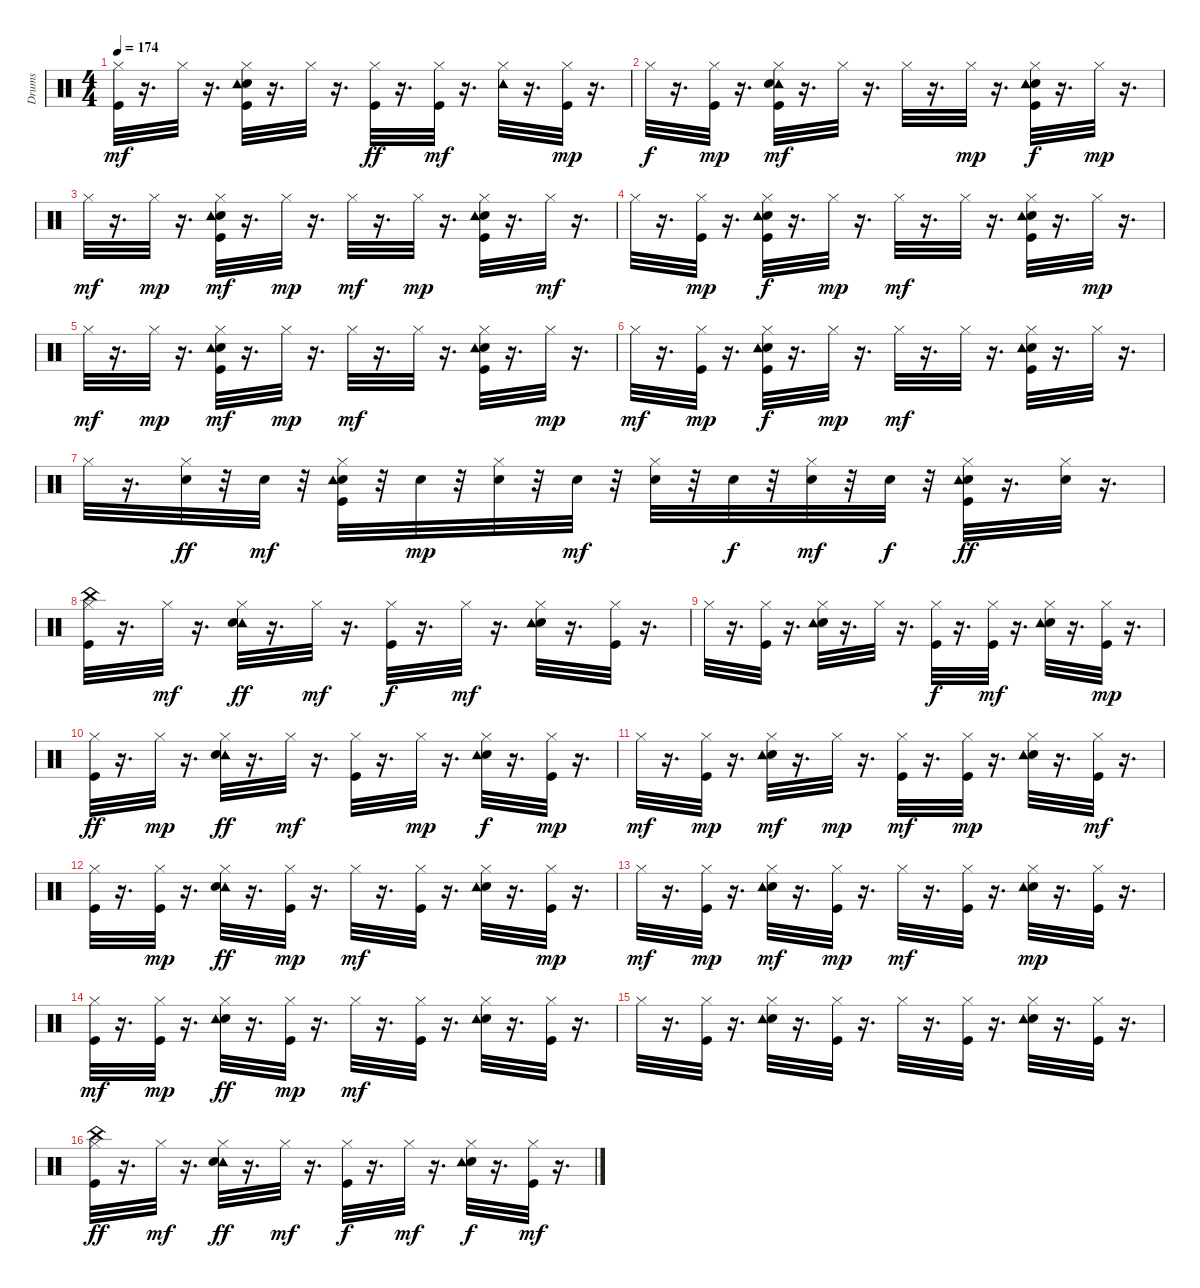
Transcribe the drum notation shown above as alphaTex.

\track ("Drums" "Drums") {instrument percussion}
\staff {score}
\articulation defaults
\ts (4 4)
\tempo 174
\clef neutral
\ks c
("Kick (hit)" "Hi-Hat (closed)").32{dy mf} r.16{d} "Hi-Hat (closed)".32 r.16{d} ("Kick (hit)" "Hi-Hat (closed)" "Electric Snare (hit)" "Tambourine (hit)").32 r.16{d} "Hi-Hat (closed)".32 r.16{d} ("Kick (hit)" "Hi-Hat (closed)").32{dy ff} r.16{d} ("Kick (hit)" "Hi-Hat (closed)").32{dy mf} r.16{d} ("Hi-Hat (closed)" "Tambourine (hit)").32 r.16{d} ("Kick (hit)" "Hi-Hat (closed)").32{dy mp} r.16{d} |
"Hi-Hat (closed)".32{dy f} r.16{d} ("Kick (hit)" "Hi-Hat (closed)").32{dy mp} r.16{d} ("Tambourine (hit)" "Kick (hit)" "Hi-Hat (closed)" "Electric Snare (hit)").32{dy mf} r.16{d} "Hi-Hat (closed)".32 r.16{d} "Hi-Hat (closed)".32 r.16{d} "Hi-Hat (closed)".32{dy mp} r.16{d} ("Kick (hit)" "Hi-Hat (closed)" "Electric Snare (hit)" "Tambourine (hit)").32{dy f} r.16{d} "Hi-Hat (closed)".32{dy mp} r.16{d} |
"Hi-Hat (closed)".32{dy mf} r.16{d} "Hi-Hat (closed)".32{dy mp} r.16{d} ("Kick (hit)" "Hi-Hat (closed)" "Electric Snare (hit)" "Tambourine (hit)").32{dy mf} r.16{d} "Hi-Hat (closed)".32{dy mp} r.16{d} "Hi-Hat (closed)".32{dy mf} r.16{d} "Hi-Hat (closed)".32{dy mp} r.16{d} ("Kick (hit)" "Hi-Hat (closed)" "Electric Snare (hit)" "Tambourine (hit)").32 r.16{d} "Hi-Hat (closed)".32{dy mf} r.16{d} |
"Hi-Hat (closed)".32 r.16{d} ("Kick (hit)" "Hi-Hat (closed)").32{dy mp} r.16{d} ("Kick (hit)" "Hi-Hat (closed)" "Electric Snare (hit)" "Tambourine (hit)").32{dy f} r.16{d} "Hi-Hat (closed)".32{dy mp} r.16{d} "Hi-Hat (closed)".32{dy mf} r.16{d} "Hi-Hat (closed)".32 r.16{d} ("Kick (hit)" "Hi-Hat (closed)" "Electric Snare (hit)" "Tambourine (hit)").32 r.16{d} "Hi-Hat (closed)".32{dy mp} r.16{d} |
"Hi-Hat (closed)".32{dy mf} r.16{d} "Hi-Hat (closed)".32{dy mp} r.16{d} ("Kick (hit)" "Hi-Hat (closed)" "Electric Snare (hit)" "Tambourine (hit)").32{dy mf} r.16{d} "Hi-Hat (closed)".32{dy mp} r.16{d} "Hi-Hat (closed)".32{dy mf} r.16{d} "Hi-Hat (closed)".32 r.16{d} ("Kick (hit)" "Hi-Hat (closed)" "Electric Snare (hit)" "Tambourine (hit)").32 r.16{d} "Hi-Hat (closed)".32{dy mp} r.16{d} |
"Hi-Hat (closed)".32{dy mf} r.16{d} ("Kick (hit)" "Hi-Hat (closed)").32{dy mp} r.16{d} ("Kick (hit)" "Hi-Hat (closed)" "Electric Snare (hit)" "Tambourine (hit)").32{dy f} r.16{d} "Hi-Hat (closed)".32{dy mp} r.16{d} "Hi-Hat (closed)".32{dy mf} r.16{d} "Hi-Hat (closed)".32 r.16{d} ("Kick (hit)" "Hi-Hat (closed)" "Electric Snare (hit)" "Tambourine (hit)").32 r.16{d} "Hi-Hat (closed)".32 r.16{d} |
"Hi-Hat (closed)".32 r.16{d} ("Hi-Hat (closed)" "Electric Snare (hit)").32{dy ff} r.32 "Electric Snare (hit)".32{dy mf} r.32 ("Kick (hit)" "Hi-Hat (closed)" "Electric Snare (hit)" "Tambourine (hit)").32 r.32 "Electric Snare (hit)".32{dy mp} r.32 ("Hi-Hat (closed)" "Electric Snare (hit)").32 r.32 "Electric Snare (hit)".32{dy mf} r.32 ("Hi-Hat (closed)" "Electric Snare (hit)").32 r.32 "Electric Snare (hit)".32{dy f} r.32 ("Hi-Hat (closed)" "Electric Snare (hit)").32{dy mf} r.32 "Electric Snare (hit)".32{dy f} r.32 ("Kick (hit)" "Hi-Hat (closed)" "Electric Snare (hit)" "Tambourine (hit)").32{dy ff} r.16{d} ("Hi-Hat (closed)" "Electric Snare (hit)").32 r.16{d} |
("Kick (hit)" "Hi-Hat (closed)" "China (hit)").32 r.16{d} "Hi-Hat (closed)".32{dy mf} r.16{d} ("Tambourine (hit)" "Hi-Hat (closed)" "Electric Snare (hit)").32{dy ff} r.16{d} "Hi-Hat (closed)".32{dy mf} r.16{d} ("Kick (hit)" "Hi-Hat (closed)").32{dy f} r.16{d} "Hi-Hat (closed)".32{dy mf} r.16{d} ("Hi-Hat (closed)" "Electric Snare (hit)" "Tambourine (hit)").32 r.16{d} ("Kick (hit)" "Hi-Hat (closed)").32 r.16{d} |
"Hi-Hat (closed)".32 r.16{d} ("Kick (hit)" "Hi-Hat (closed)").32 r.16{d} ("Hi-Hat (closed)" "Electric Snare (hit)" "Tambourine (hit)").32 r.16{d} "Hi-Hat (closed)".32 r.16{d} ("Kick (hit)" "Hi-Hat (closed)").32{dy f} r.16{d} ("Kick (hit)" "Hi-Hat (closed)").32{dy mf} r.16{d} ("Hi-Hat (closed)" "Electric Snare (hit)" "Tambourine (hit)").32 r.16{d} ("Kick (hit)" "Hi-Hat (closed)").32{dy mp} r.16{d} |
("Kick (hit)" "Hi-Hat (closed)").32{dy ff} r.16{d} "Hi-Hat (closed)".32{dy mp} r.16{d} ("Tambourine (hit)" "Hi-Hat (closed)" "Electric Snare (hit)").32{dy ff} r.16{d} "Hi-Hat (closed)".32{dy mf} r.16{d} ("Kick (hit)" "Hi-Hat (closed)").32 r.16{d} "Hi-Hat (closed)".32{dy mp} r.16{d} ("Hi-Hat (closed)" "Electric Snare (hit)" "Tambourine (hit)").32{dy f} r.16{d} ("Kick (hit)" "Hi-Hat (closed)").32{dy mp} r.16{d} |
"Hi-Hat (closed)".32{dy mf} r.16{d} ("Kick (hit)" "Hi-Hat (closed)").32{dy mp} r.16{d} ("Hi-Hat (closed)" "Electric Snare (hit)" "Tambourine (hit)").32{dy mf} r.16{d} "Hi-Hat (closed)".32{dy mp} r.16{d} ("Kick (hit)" "Hi-Hat (closed)").32{dy mf} r.16{d} ("Kick (hit)" "Hi-Hat (closed)").32{dy mp} r.16{d} ("Hi-Hat (closed)" "Electric Snare (hit)" "Tambourine (hit)").32 r.16{d} ("Kick (hit)" "Hi-Hat (closed)").32{dy mf} r.16{d} |
("Kick (hit)" "Hi-Hat (closed)").32 r.16{d} ("Kick (hit)" "Hi-Hat (closed)").32{dy mp} r.16{d} ("Tambourine (hit)" "Hi-Hat (closed)" "Electric Snare (hit)").32{dy ff} r.16{d} ("Kick (hit)" "Hi-Hat (closed)").32{dy mp} r.16{d} "Hi-Hat (closed)".32{dy mf} r.16{d} ("Kick (hit)" "Hi-Hat (closed)").32 r.16{d} ("Hi-Hat (closed)" "Electric Snare (hit)" "Tambourine (hit)").32 r.16{d} ("Kick (hit)" "Hi-Hat (closed)").32{dy mp} r.16{d} |
"Hi-Hat (closed)".32{dy mf} r.16{d} ("Kick (hit)" "Hi-Hat (closed)").32{dy mp} r.16{d} ("Hi-Hat (closed)" "Electric Snare (hit)" "Tambourine (hit)").32{dy mf} r.16{d} ("Kick (hit)" "Hi-Hat (closed)").32{dy mp} r.16{d} "Hi-Hat (closed)".32{dy mf} r.16{d} ("Kick (hit)" "Hi-Hat (closed)").32 r.16{d} ("Hi-Hat (closed)" "Electric Snare (hit)" "Tambourine (hit)").32{dy mp} r.16{d} ("Kick (hit)" "Hi-Hat (closed)").32 r.16{d} |
("Kick (hit)" "Hi-Hat (closed)").32{dy mf} r.16{d} ("Kick (hit)" "Hi-Hat (closed)").32{dy mp} r.16{d} ("Hi-Hat (closed)" "Electric Snare (hit)" "Tambourine (hit)").32{dy ff} r.16{d} ("Kick (hit)" "Hi-Hat (closed)").32{dy mp} r.16{d} "Hi-Hat (closed)".32{dy mf} r.16{d} ("Kick (hit)" "Hi-Hat (closed)").32 r.16{d} ("Hi-Hat (closed)" "Electric Snare (hit)" "Tambourine (hit)").32 r.16{d} ("Kick (hit)" "Hi-Hat (closed)").32 r.16{d} |
"Hi-Hat (closed)".32 r.16{d} ("Kick (hit)" "Hi-Hat (closed)").32 r.16{d} ("Hi-Hat (closed)" "Electric Snare (hit)" "Tambourine (hit)").32 r.16{d} ("Kick (hit)" "Hi-Hat (closed)").32 r.16{d} "Hi-Hat (closed)".32 r.16{d} ("Kick (hit)" "Hi-Hat (closed)").32 r.16{d} ("Hi-Hat (closed)" "Electric Snare (hit)" "Tambourine (hit)").32 r.16{d} ("Kick (hit)" "Hi-Hat (closed)").32 r.16{d} |
("Kick (hit)" "Hi-Hat (closed)" "China (hit)").32{dy ff} r.16{d} "Hi-Hat (closed)".32{dy mf} r.16{d} ("Tambourine (hit)" "Hi-Hat (closed)" "Electric Snare (hit)").32{dy ff} r.16{d} "Hi-Hat (closed)".32{dy mf} r.16{d} ("Kick (hit)" "Hi-Hat (closed)").32{dy f} r.16{d} "Hi-Hat (closed)".32{dy mf} r.16{d} ("Hi-Hat (closed)" "Electric Snare (hit)" "Tambourine (hit)").32{dy f} r.16{d} ("Kick (hit)" "Hi-Hat (closed)").32{dy mf} r.16{d}
